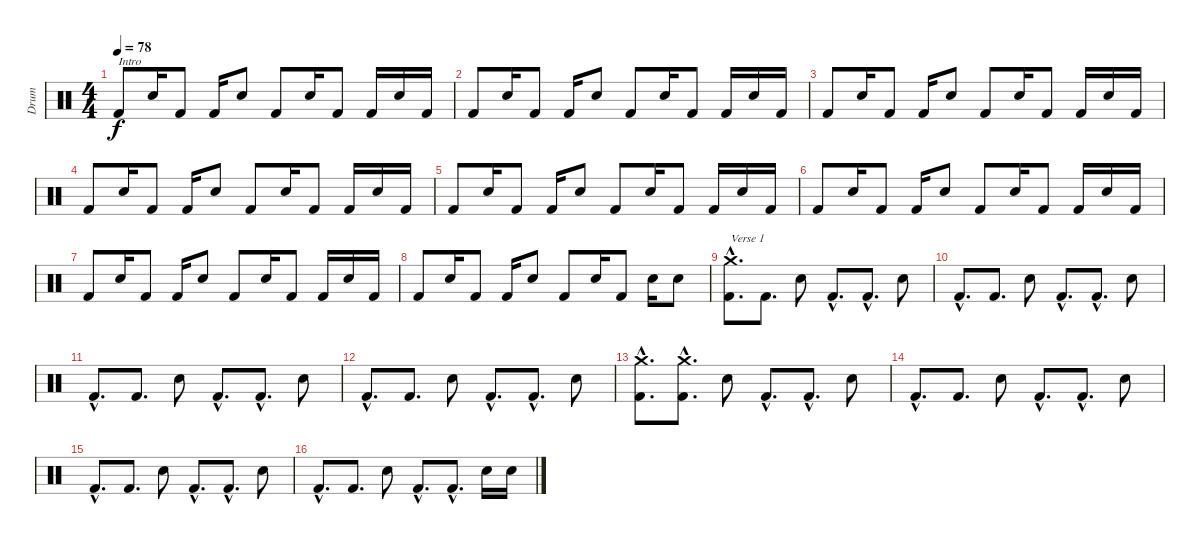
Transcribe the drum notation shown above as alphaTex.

\track ("Drum" "Drum") {instrument percussion}
\staff {score}
\articulation defaults
\ts (4 4)
\tempo 78
\clef neutral
\ks c "Kick (hit) 2".8{txt "Intro" dy f} "Electric Snare (hit)".16 "Kick (hit) 2".8 "Kick (hit) 2".16 "Electric Snare (hit)".8 "Kick (hit) 2".8 "Electric Snare (hit)".16 "Kick (hit) 2".8 "Kick (hit) 2".16 "Electric Snare (hit)".16 "Kick (hit) 2".16
|
"Kick (hit) 2".8 "Electric Snare (hit)".16 "Kick (hit) 2".8 "Kick (hit) 2".16 "Electric Snare (hit)".8 "Kick (hit) 2".8 "Electric Snare (hit)".16 "Kick (hit) 2".8 "Kick (hit) 2".16 "Electric Snare (hit)".16 "Kick (hit) 2".16 |
"Kick (hit) 2".8 "Electric Snare (hit)".16 "Kick (hit) 2".8 "Kick (hit) 2".16 "Electric Snare (hit)".8 "Kick (hit) 2".8 "Electric Snare (hit)".16 "Kick (hit) 2".8 "Kick (hit) 2".16 "Electric Snare (hit)".16 "Kick (hit) 2".16 |
"Kick (hit) 2".8 "Electric Snare (hit)".16 "Kick (hit) 2".8 "Kick (hit) 2".16 "Electric Snare (hit)".8 "Kick (hit) 2".8 "Electric Snare (hit)".16 "Kick (hit) 2".8 "Kick (hit) 2".16 "Electric Snare (hit)".16 "Kick (hit) 2".16 |
"Kick (hit) 2".8 "Electric Snare (hit)".16 "Kick (hit) 2".8 "Kick (hit) 2".16 "Electric Snare (hit)".8 "Kick (hit) 2".8 "Electric Snare (hit)".16 "Kick (hit) 2".8 "Kick (hit) 2".16 "Electric Snare (hit)".16 "Kick (hit) 2".16 |
"Kick (hit) 2".8 "Electric Snare (hit)".16 "Kick (hit) 2".8 "Kick (hit) 2".16 "Electric Snare (hit)".8 "Kick (hit) 2".8 "Electric Snare (hit)".16 "Kick (hit) 2".8 "Kick (hit) 2".16 "Electric Snare (hit)".16 "Kick (hit) 2".16 |
"Kick (hit) 2".8 "Electric Snare (hit)".16 "Kick (hit) 2".8 "Kick (hit) 2".16 "Electric Snare (hit)".8 "Kick (hit) 2".8 "Electric Snare (hit)".16 "Kick (hit) 2".8 "Kick (hit) 2".16 "Electric Snare (hit)".16 "Kick (hit) 2".16 |
"Kick (hit) 2".8 "Electric Snare (hit)".16 "Kick (hit) 2".8 "Kick (hit) 2".16 "Electric Snare (hit)".8 "Kick (hit) 2".8 "Electric Snare (hit)".16 "Kick (hit) 2".8 "Electric Snare (hit)".16 "Electric Snare (hit)".8 |
("Crash medium (hit)"{hac} "Kick (hit) 2"{hac}).8{d txt "Verse 1"} "Kick (hit) 2".8{d} "Electric Snare (hit)".8 "Kick (hit) 2"{hac}.8{d} "Kick (hit) 2"{hac}.8{d} "Electric Snare (hit)".8 |
"Kick (hit) 2"{hac}.8{d} "Kick (hit) 2".8{d} "Electric Snare (hit)".8 "Kick (hit) 2"{hac}.8{d} "Kick (hit) 2"{hac}.8{d} "Electric Snare (hit)".8 |
"Kick (hit) 2"{hac}.8{d} "Kick (hit) 2".8{d} "Electric Snare (hit)".8 "Kick (hit) 2"{hac}.8{d} "Kick (hit) 2"{hac}.8{d} "Electric Snare (hit)".8 |
"Kick (hit) 2"{hac}.8{d} "Kick (hit) 2".8{d} "Electric Snare (hit)".8 "Kick (hit) 2"{hac}.8{d} "Kick (hit) 2"{hac}.8{d} "Electric Snare (hit)".8 |
("Crash medium (hit)"{hac} "Kick (hit) 2"{hac}).8{d} ("Crash medium (hit)"{hac} "Kick (hit) 2").8{d} "Electric Snare (hit)".8 "Kick (hit) 2"{hac}.8{d} "Kick (hit) 2"{hac}.8{d} "Electric Snare (hit)".8 |
"Kick (hit) 2"{hac}.8{d} "Kick (hit) 2".8{d} "Electric Snare (hit)".8 "Kick (hit) 2"{hac}.8{d} "Kick (hit) 2"{hac}.8{d} "Electric Snare (hit)".8 |
"Kick (hit) 2"{hac}.8{d} "Kick (hit) 2".8{d} "Electric Snare (hit)".8 "Kick (hit) 2"{hac}.8{d} "Kick (hit) 2"{hac}.8{d} "Electric Snare (hit)".8 |
"Kick (hit) 2"{hac}.8{d} "Kick (hit) 2".8{d} "Electric Snare (hit)".8 "Kick (hit) 2"{hac}.8{d} "Kick (hit) 2"{hac}.8{d} "Electric Snare (hit)".16 "Electric Snare (hit)".16
